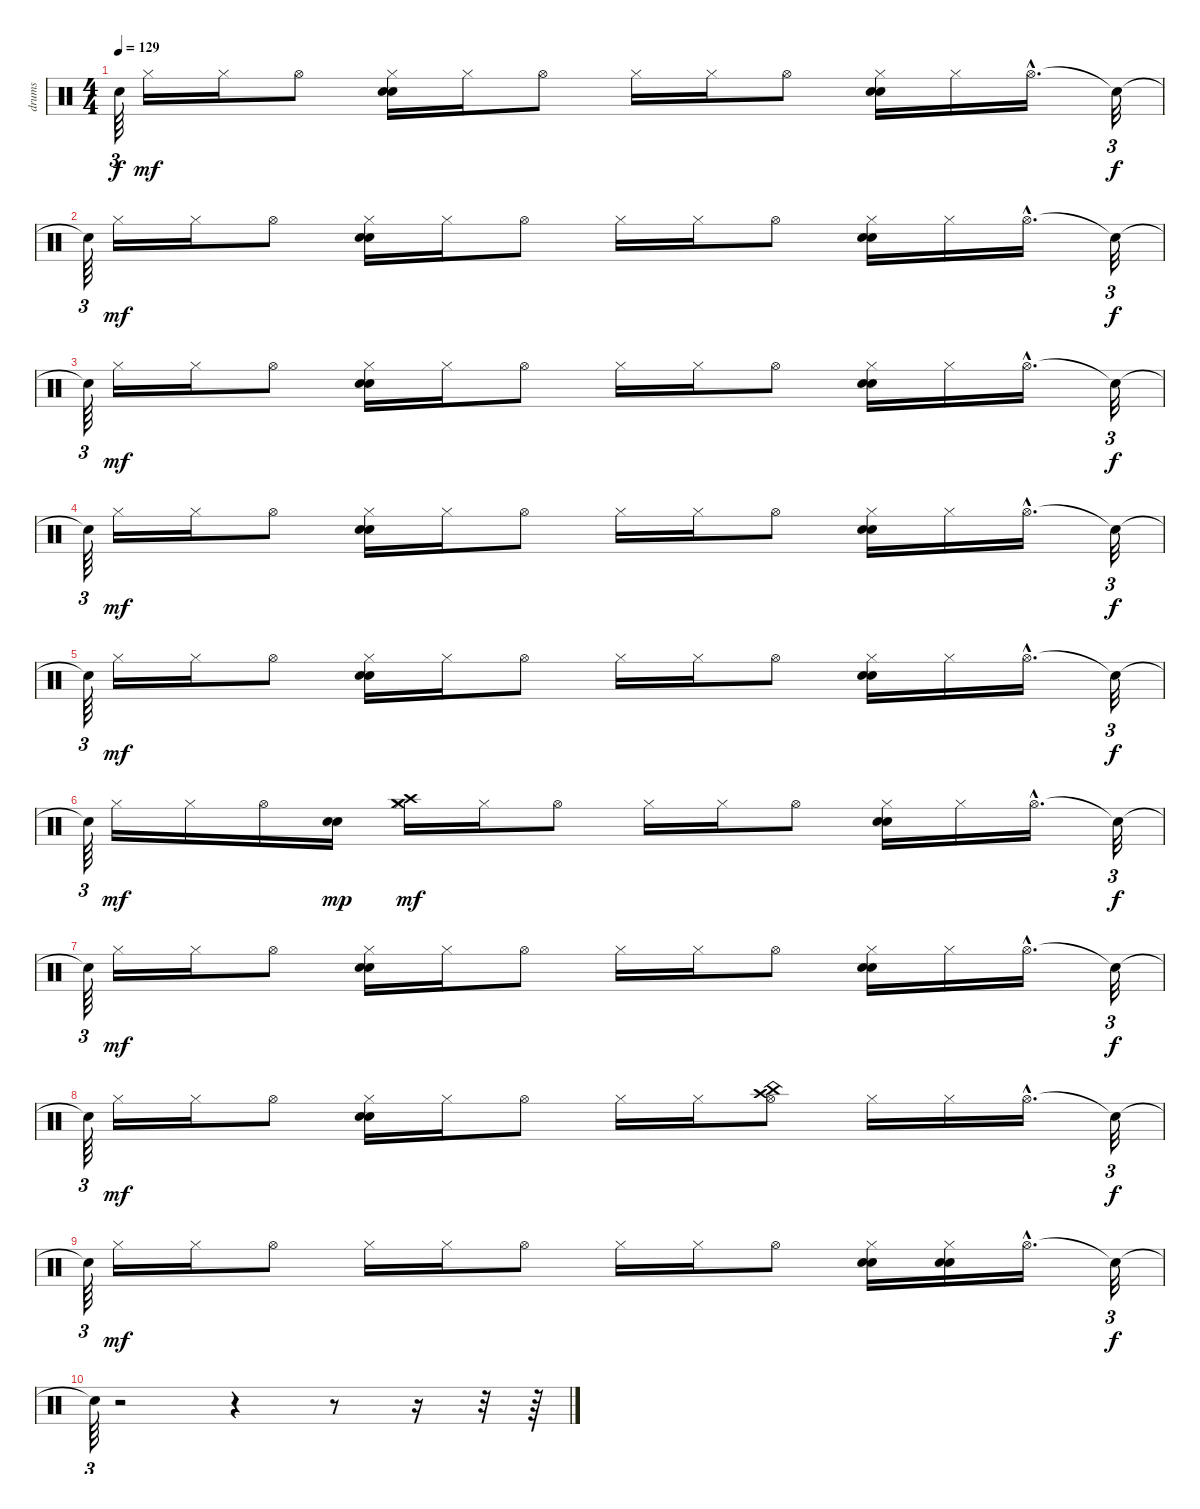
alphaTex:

\track ("drums   " "drums   ") {instrument percussion}
\staff {score}
\articulation defaults
\ts (4 4)
\tempo 129
\clef neutral
\ks c "Snare (hit)"{t}.64{tu (3 2) dy f} "Hi-Hat (closed)".16{dy mf} "Hi-Hat (closed)".16 "Hi-Hat (open)".8
("Snare (hit) 2" "Electric Snare (hit)" "Hi-Hat (closed)").16 "Hi-Hat (closed)".16 "Hi-Hat (open)".8 "Hi-Hat (closed)".16 "Hi-Hat (closed)".16 "Hi-Hat (open)".8 ("Snare (hit) 2" "Electric Snare (hit)" "Hi-Hat (closed)").16 "Hi-Hat (closed)".16 "Hi-Hat (open)"{hac}.16{d} "Snare (hit)"{t}.32{tu (3 2) dy f} |
"Snare (hit)"{t}.64{tu (3 2)} "Hi-Hat (closed)".16{dy mf} "Hi-Hat (closed)".16 "Hi-Hat (open)".8 ("Snare (hit) 2" "Electric Snare (hit)" "Hi-Hat (closed)").16 "Hi-Hat (closed)".16 "Hi-Hat (open)".8 "Hi-Hat (closed)".16 "Hi-Hat (closed)".16 "Hi-Hat (open)".8 ("Snare (hit) 2" "Electric Snare (hit)" "Hi-Hat (closed)").16 "Hi-Hat (closed)".16 "Hi-Hat (open)"{hac}.16{d} "Snare (hit)"{t}.32{tu (3 2) dy f} |
"Snare (hit)"{t}.64{tu (3 2)} "Hi-Hat (closed)".16{dy mf} "Hi-Hat (closed)".16 "Hi-Hat (open)".8 ("Snare (hit) 2" "Electric Snare (hit)" "Hi-Hat (closed)").16 "Hi-Hat (closed)".16 "Hi-Hat (open)".8 "Hi-Hat (closed)".16 "Hi-Hat (closed)".16 "Hi-Hat (open)".8 ("Snare (hit) 2" "Electric Snare (hit)" "Hi-Hat (closed)").16 "Hi-Hat (closed)".16 "Hi-Hat (open)"{hac}.16{d} "Snare (hit)"{t}.32{tu (3 2) dy f} |
"Snare (hit)"{t}.64{tu (3 2)} "Hi-Hat (closed)".16{dy mf} "Hi-Hat (closed)".16 "Hi-Hat (open)".8 ("Snare (hit) 2" "Electric Snare (hit)" "Hi-Hat (closed)").16 "Hi-Hat (closed)".16 "Hi-Hat (open)".8 "Hi-Hat (closed)".16 "Hi-Hat (closed)".16 "Hi-Hat (open)".8 ("Snare (hit) 2" "Electric Snare (hit)" "Hi-Hat (closed)").16 "Hi-Hat (closed)".16 "Hi-Hat (open)"{hac}.16{d} "Snare (hit)"{t}.32{tu (3 2) dy f} |
"Snare (hit)"{t}.64{tu (3 2)} "Hi-Hat (closed)".16{dy mf} "Hi-Hat (closed)".16 "Hi-Hat (open)".8 ("Snare (hit) 2" "Electric Snare (hit)" "Hi-Hat (closed)").16 "Hi-Hat (closed)".16 "Hi-Hat (open)".8 "Hi-Hat (closed)".16 "Hi-Hat (closed)".16 "Hi-Hat (open)".8 ("Snare (hit) 2" "Electric Snare (hit)" "Hi-Hat (closed)").16 "Hi-Hat (closed)".16 "Hi-Hat (open)"{hac}.16{d} "Snare (hit)"{t}.32{tu (3 2) dy f} |
"Snare (hit)"{t}.64{tu (3 2)} "Hi-Hat (closed)".16{dy mf} "Hi-Hat (closed)".16 "Hi-Hat (open)".16 ("Snare (hit) 2" "Electric Snare (hit)").16{dy mp} ("Hi-Hat (closed)" "Crash high (hit)" "Crash medium (hit)").16{dy mf} "Hi-Hat (closed)".16 "Hi-Hat (open)".8 "Hi-Hat (closed)".16 "Hi-Hat (closed)".16 "Hi-Hat (open)".8 ("Snare (hit) 2" "Electric Snare (hit)" "Hi-Hat (closed)").16 "Hi-Hat (closed)".16 "Hi-Hat (open)"{hac}.16{d} "Snare (hit)"{t}.32{tu (3 2) dy f} |
"Snare (hit)"{t}.64{tu (3 2)} "Hi-Hat (closed)".16{dy mf} "Hi-Hat (closed)".16 "Hi-Hat (open)".8 ("Snare (hit) 2" "Electric Snare (hit)" "Hi-Hat (closed)").16 "Hi-Hat (closed)".16 "Hi-Hat (open)".8 "Hi-Hat (closed)".16 "Hi-Hat (closed)".16 "Hi-Hat (open)".8 ("Snare (hit) 2" "Electric Snare (hit)" "Hi-Hat (closed)").16 "Hi-Hat (closed)".16 "Hi-Hat (open)"{hac}.16{d} "Snare (hit)"{t}.32{tu (3 2) dy f} |
"Snare (hit)"{t}.64{tu (3 2)} "Hi-Hat (closed)".16{dy mf} "Hi-Hat (closed)".16 "Hi-Hat (open)".8 ("Snare (hit) 2" "Electric Snare (hit)" "Hi-Hat (closed)").16 "Hi-Hat (closed)".16 "Hi-Hat (open)".8 "Hi-Hat (closed)".16 "Hi-Hat (closed)".16 ("Hi-Hat (open)" "Crash high (hit)" "China (hit)").8 "Hi-Hat (closed)".16 "Hi-Hat (closed)".16 "Hi-Hat (open)"{hac}.16{d} "Snare (hit)"{t}.32{tu (3 2) dy f} |
"Snare (hit)"{t}.64{tu (3 2)} "Hi-Hat (closed)".16{dy mf} "Hi-Hat (closed)".16 "Hi-Hat (open)".8 "Hi-Hat (closed)".16 "Hi-Hat (closed)".16 "Hi-Hat (open)".8 "Hi-Hat (closed)".16 "Hi-Hat (closed)".16 "Hi-Hat (open)".8 ("Snare (hit) 2" "Electric Snare (hit)" "Hi-Hat (closed)").16 ("Snare (hit) 2" "Electric Snare (hit)" "Hi-Hat (closed)").16 "Hi-Hat (open)"{hac}.16{d} "Snare (hit)"{t}.32{tu (3 2) dy f} |
"Snare (hit)"{t}.64{tu (3 2)} r.2 r.4 r.8 r.16 r.32 r.64
